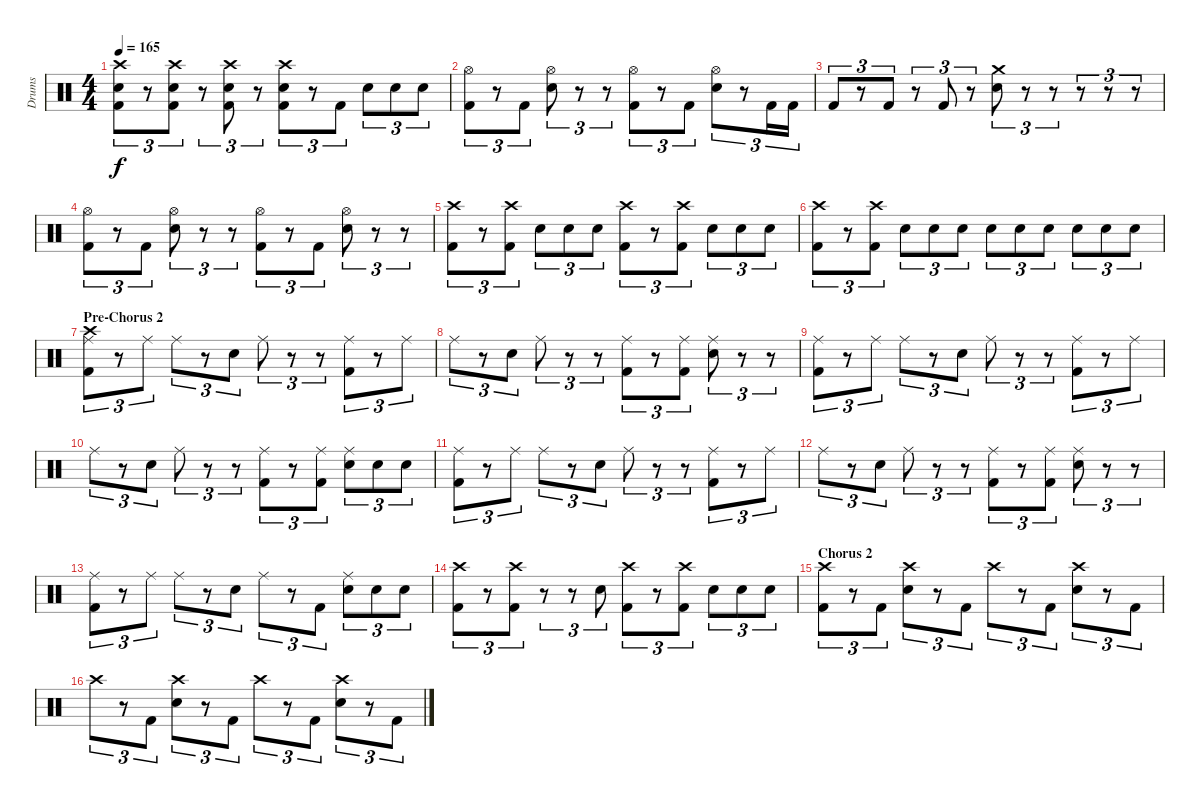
\track ("Drums" "Drums") {instrument percussion}
\staff {score}
\articulation defaults
\ts (4 4)
\tempo 165
\clef neutral
\ks c
("Crash high (hit)" "Snare (hit) 2" "Kick (hit) 2").8{tu (3 2) dy f} r.8{tu (3 2)} ("Crash high (hit)" "Snare (hit) 2" "Kick (hit) 2").8{tu (3 2)} r.8{tu (3 2)} ("Crash high (hit)" "Snare (hit) 2" "Kick (hit) 2").8{tu (3 2)} r.8{tu (3 2)} ("Crash high (hit)" "Snare (hit) 2" "Kick (hit) 2").8{tu (3 2)} r.8{tu (3 2)} "Kick (hit) 2".8{tu (3 2)} "Snare (hit) 2".8{tu (3 2)} "Snare (hit) 2".8{tu (3 2)} "Snare (hit) 2".8{tu (3 2)} |
("Hi-Hat (open)" "Kick (hit) 2").8{tu (3 2)} r.8{tu (3 2)} "Kick (hit) 2".8{tu (3 2)} ("Hi-Hat (open)" "Snare (hit) 2").8{tu (3 2)} r.8{tu (3 2)} r.8{tu (3 2)} ("Hi-Hat (open)" "Kick (hit) 2").8{tu (3 2)} r.8{tu (3 2)} "Kick (hit) 2".8{tu (3 2)} ("Hi-Hat (open)" "Snare (hit) 2").8{tu (3 2)} r.8{tu (3 2)} "Kick (hit) 2".16{tu (3 2)} "Kick (hit) 2".16{tu (3 2)} |
"Kick (hit) 2".8{tu (3 2)} r.8{tu (3 2)} "Kick (hit) 2".8{tu (3 2)} r.8{tu (3 2)} "Kick (hit) 2".8{tu (3 2)} r.8{tu (3 2)} ("Crash medium (hit)" "Snare (hit) 2").8{tu (3 2)} r.8{tu (3 2)} r.8{tu (3 2)} r.8{tu (3 2)} r.8{tu (3 2)} r.8{tu (3 2)} |
("Hi-Hat (open)" "Kick (hit) 2").8{tu (3 2)} r.8{tu (3 2)} "Kick (hit) 2".8{tu (3 2)} ("Hi-Hat (open)" "Snare (hit) 2").8{tu (3 2)} r.8{tu (3 2)} r.8{tu (3 2)} ("Hi-Hat (open)" "Kick (hit) 2").8{tu (3 2)} r.8{tu (3 2)} "Kick (hit) 2".8{tu (3 2)} ("Hi-Hat (open)" "Snare (hit) 2").8{tu (3 2)} r.8{tu (3 2)} r.8{tu (3 2)} |
("Crash high (hit)" "Kick (hit) 2").8{tu (3 2)} r.8{tu (3 2)} ("Crash high (hit)" "Kick (hit) 2").8{tu (3 2)} "Snare (hit) 2".8{tu (3 2)} "Snare (hit) 2".8{tu (3 2)} "Snare (hit) 2".8{tu (3 2)} ("Crash high (hit)" "Kick (hit) 2").8{tu (3 2)} r.8{tu (3 2)} ("Crash high (hit)" "Kick (hit) 2").8{tu (3 2)} "Snare (hit) 2".8{tu (3 2)} "Snare (hit) 2".8{tu (3 2)} "Snare (hit) 2".8{tu (3 2)} |
("Crash high (hit)" "Kick (hit) 2").8{tu (3 2)} r.8{tu (3 2)} ("Crash high (hit)" "Kick (hit) 2").8{tu (3 2)} "Snare (hit) 2".8{tu (3 2)} "Snare (hit) 2".8{tu (3 2)} "Snare (hit) 2".8{tu (3 2)} "Snare (hit) 2".8{tu (3 2)} "Snare (hit) 2".8{tu (3 2)} "Snare (hit) 2".8{tu (3 2)} "Snare (hit) 2".8{tu (3 2)} "Snare (hit) 2".8{tu (3 2)} "Snare (hit) 2".8{tu (3 2)} |
\section ("" "Pre-Chorus 2")
("Ride (middle)" "Crash high (hit)" "Kick (hit) 2").8{tu (3 2)} r.8{tu (3 2)} "Ride (middle)".8{tu (3 2)} "Ride (middle)".8{tu (3 2)} r.8{tu (3 2)} "Snare (hit) 2".8{tu (3 2)} "Ride (middle)".8{tu (3 2)} r.8{tu (3 2)} r.8{tu (3 2)} ("Ride (middle)" "Kick (hit) 2").8{tu (3 2)} r.8{tu (3 2)} "Ride (middle)".8{tu (3 2)} |
"Ride (middle)".8{tu (3 2)} r.8{tu (3 2)} "Snare (hit) 2".8{tu (3 2)} "Ride (middle)".8{tu (3 2)} r.8{tu (3 2)} r.8{tu (3 2)} ("Ride (middle)" "Kick (hit) 2").8{tu (3 2)} r.8{tu (3 2)} ("Ride (middle)" "Kick (hit) 2").8{tu (3 2)} ("Ride (middle)" "Snare (hit) 2").8{tu (3 2)} r.8{tu (3 2)} r.8{tu (3 2)} |
("Ride (middle)" "Kick (hit) 2").8{tu (3 2)} r.8{tu (3 2)} "Ride (middle)".8{tu (3 2)} "Ride (middle)".8{tu (3 2)} r.8{tu (3 2)} "Snare (hit) 2".8{tu (3 2)} "Ride (middle)".8{tu (3 2)} r.8{tu (3 2)} r.8{tu (3 2)} ("Ride (middle)" "Kick (hit) 2").8{tu (3 2)} r.8{tu (3 2)} "Ride (middle)".8{tu (3 2)} |
"Ride (middle)".8{tu (3 2)} r.8{tu (3 2)} "Snare (hit) 2".8{tu (3 2)} "Ride (middle)".8{tu (3 2)} r.8{tu (3 2)} r.8{tu (3 2)} ("Ride (middle)" "Kick (hit) 2").8{tu (3 2)} r.8{tu (3 2)} ("Ride (middle)" "Kick (hit) 2").8{tu (3 2)} ("Ride (middle)" "Snare (hit) 2").8{tu (3 2)} "Snare (hit) 2".8{tu (3 2)} "Snare (hit) 2".8{tu (3 2)} |
("Ride (middle)" "Kick (hit) 2").8{tu (3 2)} r.8{tu (3 2)} "Ride (middle)".8{tu (3 2)} "Ride (middle)".8{tu (3 2)} r.8{tu (3 2)} "Snare (hit) 2".8{tu (3 2)} "Ride (middle)".8{tu (3 2)} r.8{tu (3 2)} r.8{tu (3 2)} ("Ride (middle)" "Kick (hit) 2").8{tu (3 2)} r.8{tu (3 2)} "Ride (middle)".8{tu (3 2)} |
"Ride (middle)".8{tu (3 2)} r.8{tu (3 2)} "Snare (hit) 2".8{tu (3 2)} "Ride (middle)".8{tu (3 2)} r.8{tu (3 2)} r.8{tu (3 2)} ("Ride (middle)" "Kick (hit) 2").8{tu (3 2)} r.8{tu (3 2)} ("Ride (middle)" "Kick (hit) 2").8{tu (3 2)} ("Ride (middle)" "Snare (hit) 2").8{tu (3 2)} r.8{tu (3 2)} r.8{tu (3 2)} |
("Ride (middle)" "Kick (hit) 2").8{tu (3 2)} r.8{tu (3 2)} "Ride (middle)".8{tu (3 2)} "Ride (middle)".8{tu (3 2)} r.8{tu (3 2)} "Snare (hit) 2".8{tu (3 2)} "Ride (middle)".8{tu (3 2)} r.8{tu (3 2)} "Kick (hit) 2".8{tu (3 2)} ("Ride (middle)" "Snare (hit) 2").8{tu (3 2)} "Snare (hit) 2".8{tu (3 2)} "Snare (hit) 2".8{tu (3 2)} |
("Crash high (hit)" "Kick (hit) 2").8{tu (3 2)} r.8{tu (3 2)} ("Crash high (hit)" "Kick (hit) 2").8{tu (3 2)} r.8{tu (3 2)} r.8{tu (3 2)} "Snare (hit) 2".8{tu (3 2)} ("Crash high (hit)" "Kick (hit) 2").8{tu (3 2)} r.8{tu (3 2)} ("Crash high (hit)" "Kick (hit) 2").8{tu (3 2)} "Snare (hit) 2".8{tu (3 2)} "Snare (hit) 2".8{tu (3 2)} "Snare (hit) 2".8{tu (3 2)} |
\section ("" "Chorus 2")
("Crash high (hit)" "Kick (hit) 2").8{tu (3 2)} r.8{tu (3 2)} "Kick (hit) 2".8{tu (3 2)} ("Crash high (hit)" "Snare (hit) 2").8{tu (3 2)} r.8{tu (3 2)} "Kick (hit) 2".8{tu (3 2)} "Crash high (hit)".8{tu (3 2)} r.8{tu (3 2)} "Kick (hit) 2".8{tu (3 2)} ("Crash high (hit)" "Snare (hit) 2").8{tu (3 2)} r.8{tu (3 2)} "Kick (hit) 2".8{tu (3 2)} |
"Crash high (hit)".8{tu (3 2)} r.8{tu (3 2)} "Kick (hit) 2".8{tu (3 2)} ("Crash high (hit)" "Snare (hit) 2").8{tu (3 2)} r.8{tu (3 2)} "Kick (hit) 2".8{tu (3 2)} "Crash high (hit)".8{tu (3 2)} r.8{tu (3 2)} "Kick (hit) 2".8{tu (3 2)} ("Crash high (hit)" "Snare (hit) 2").8{tu (3 2)} r.8{tu (3 2)} "Kick (hit) 2".8{tu (3 2)}
